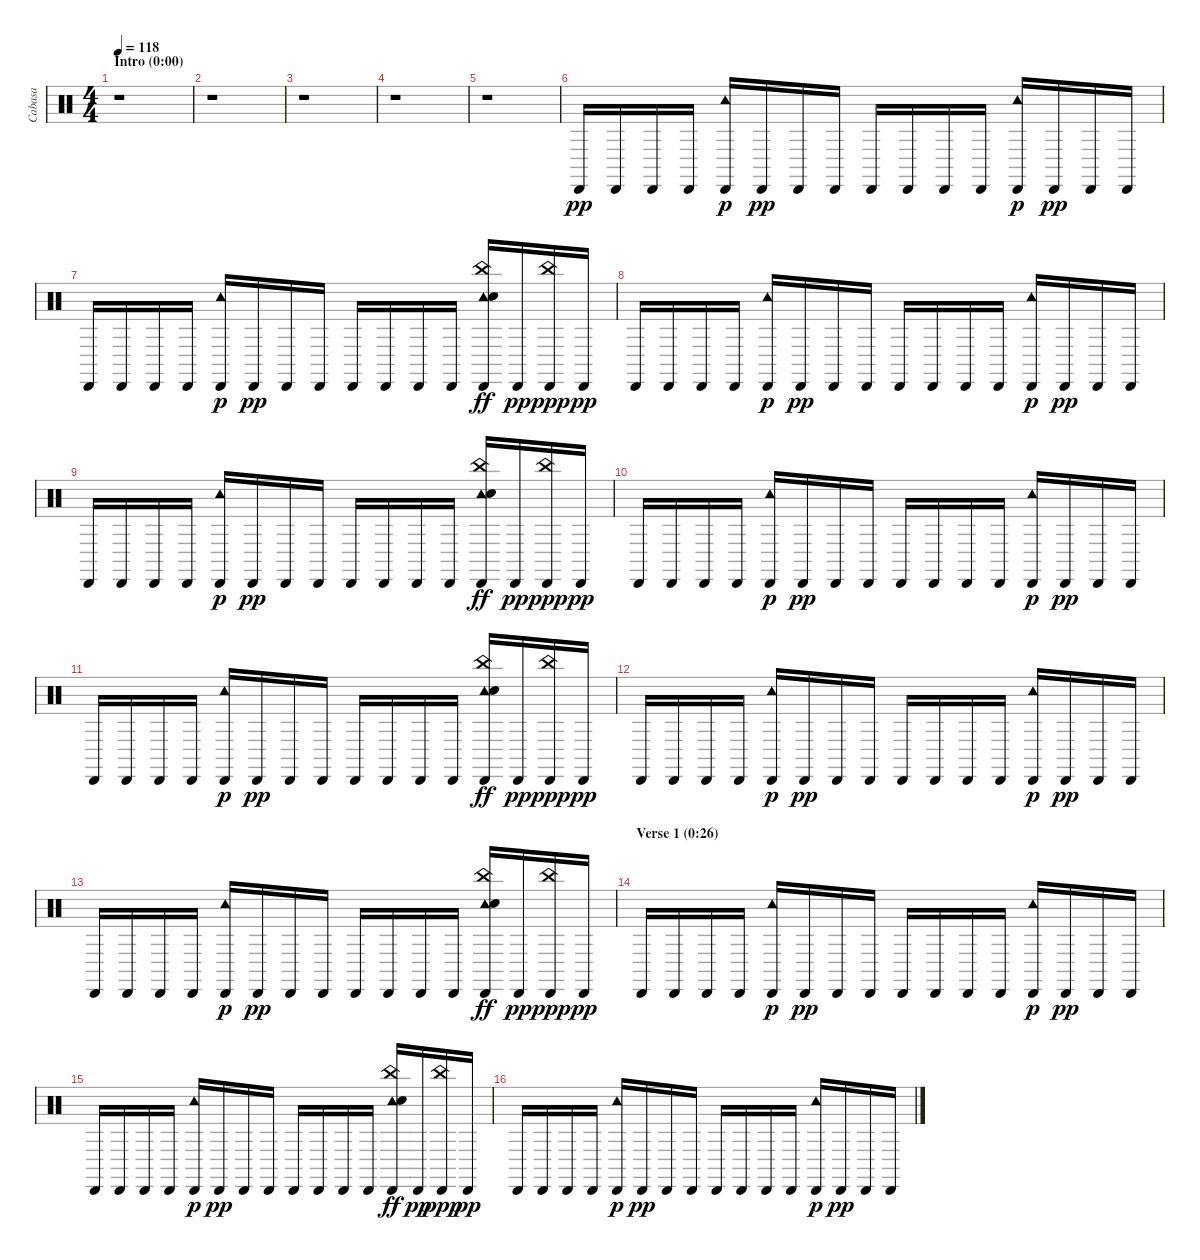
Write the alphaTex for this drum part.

\track ("Cabasa" "Cabasa") {instrument percussion}
\staff {score}
\articulation defaults
\ts (4 4)
\section ("" "Intro (0:00)")
\tempo 118
\clef neutral
\ks c
r.1{dy pp} |
r.1 |
r.1 |
r.1 |
r.1 |
"Cabasa (hit)".16 "Cabasa (hit)".16 "Cabasa (hit)".16 "Cabasa (hit)".16 ("Cabasa (hit)" "Tambourine (hit)").16{dy p} "Cabasa (hit)".16{dy pp} "Cabasa (hit)".16 "Cabasa (hit)".16 "Cabasa (hit)".16 "Cabasa (hit)".16 "Cabasa (hit)".16 "Cabasa (hit)".16 ("Cabasa (hit)" "Tambourine (hit)").16{dy p} "Cabasa (hit)".16{dy pp} "Cabasa (hit)".16 "Cabasa (hit)".16 |
"Cabasa (hit)".16 "Cabasa (hit)".16 "Cabasa (hit)".16 "Cabasa (hit)".16 ("Cabasa (hit)" "Tambourine (hit)").16{dy p} "Cabasa (hit)".16{dy pp} "Cabasa (hit)".16 "Cabasa (hit)".16 "Cabasa (hit)".16 "Cabasa (hit)".16 "Cabasa (hit)".16 "Cabasa (hit)".16 ("Cabasa (hit)" "Tambourine (hit)" "Hand Clap (hit)" "China (hit)").16{dy ff} "Cabasa (hit)".16{dy pp} ("Cabasa (hit)" "China (hit)").16{dy ppp} "Cabasa (hit)".16{dy pp} |
"Cabasa (hit)".16 "Cabasa (hit)".16 "Cabasa (hit)".16 "Cabasa (hit)".16 ("Cabasa (hit)" "Tambourine (hit)").16{dy p} "Cabasa (hit)".16{dy pp} "Cabasa (hit)".16 "Cabasa (hit)".16 "Cabasa (hit)".16 "Cabasa (hit)".16 "Cabasa (hit)".16 "Cabasa (hit)".16 ("Cabasa (hit)" "Tambourine (hit)").16{dy p} "Cabasa (hit)".16{dy pp} "Cabasa (hit)".16 "Cabasa (hit)".16 |
"Cabasa (hit)".16 "Cabasa (hit)".16 "Cabasa (hit)".16 "Cabasa (hit)".16 ("Cabasa (hit)" "Tambourine (hit)").16{dy p} "Cabasa (hit)".16{dy pp} "Cabasa (hit)".16 "Cabasa (hit)".16 "Cabasa (hit)".16 "Cabasa (hit)".16 "Cabasa (hit)".16 "Cabasa (hit)".16 ("Cabasa (hit)" "Tambourine (hit)" "Hand Clap (hit)" "China (hit)").16{dy ff} "Cabasa (hit)".16{dy pp} ("Cabasa (hit)" "China (hit)").16{dy ppp} "Cabasa (hit)".16{dy pp} |
"Cabasa (hit)".16 "Cabasa (hit)".16 "Cabasa (hit)".16 "Cabasa (hit)".16 ("Cabasa (hit)" "Tambourine (hit)").16{dy p} "Cabasa (hit)".16{dy pp} "Cabasa (hit)".16 "Cabasa (hit)".16 "Cabasa (hit)".16 "Cabasa (hit)".16 "Cabasa (hit)".16 "Cabasa (hit)".16 ("Cabasa (hit)" "Tambourine (hit)").16{dy p} "Cabasa (hit)".16{dy pp} "Cabasa (hit)".16 "Cabasa (hit)".16 |
"Cabasa (hit)".16 "Cabasa (hit)".16 "Cabasa (hit)".16 "Cabasa (hit)".16 ("Cabasa (hit)" "Tambourine (hit)").16{dy p} "Cabasa (hit)".16{dy pp} "Cabasa (hit)".16 "Cabasa (hit)".16 "Cabasa (hit)".16 "Cabasa (hit)".16 "Cabasa (hit)".16 "Cabasa (hit)".16 ("Cabasa (hit)" "Tambourine (hit)" "Hand Clap (hit)" "China (hit)").16{dy ff} "Cabasa (hit)".16{dy pp} ("Cabasa (hit)" "China (hit)").16{dy ppp} "Cabasa (hit)".16{dy pp} |
"Cabasa (hit)".16 "Cabasa (hit)".16 "Cabasa (hit)".16 "Cabasa (hit)".16 ("Cabasa (hit)" "Tambourine (hit)").16{dy p} "Cabasa (hit)".16{dy pp} "Cabasa (hit)".16 "Cabasa (hit)".16 "Cabasa (hit)".16 "Cabasa (hit)".16 "Cabasa (hit)".16 "Cabasa (hit)".16 ("Cabasa (hit)" "Tambourine (hit)").16{dy p} "Cabasa (hit)".16{dy pp} "Cabasa (hit)".16 "Cabasa (hit)".16 |
"Cabasa (hit)".16 "Cabasa (hit)".16 "Cabasa (hit)".16 "Cabasa (hit)".16 ("Cabasa (hit)" "Tambourine (hit)").16{dy p} "Cabasa (hit)".16{dy pp} "Cabasa (hit)".16 "Cabasa (hit)".16 "Cabasa (hit)".16 "Cabasa (hit)".16 "Cabasa (hit)".16 "Cabasa (hit)".16 ("Cabasa (hit)" "Tambourine (hit)" "Hand Clap (hit)" "China (hit)").16{dy ff} "Cabasa (hit)".16{dy pp} ("Cabasa (hit)" "China (hit)").16{dy ppp} "Cabasa (hit)".16{dy pp} |
\section ("" "Verse 1 (0:26)")
"Cabasa (hit)".16 "Cabasa (hit)".16 "Cabasa (hit)".16 "Cabasa (hit)".16 ("Cabasa (hit)" "Tambourine (hit)").16{dy p} "Cabasa (hit)".16{dy pp} "Cabasa (hit)".16 "Cabasa (hit)".16 "Cabasa (hit)".16 "Cabasa (hit)".16 "Cabasa (hit)".16 "Cabasa (hit)".16 ("Cabasa (hit)" "Tambourine (hit)").16{dy p} "Cabasa (hit)".16{dy pp} "Cabasa (hit)".16 "Cabasa (hit)".16 |
"Cabasa (hit)".16 "Cabasa (hit)".16 "Cabasa (hit)".16 "Cabasa (hit)".16 ("Cabasa (hit)" "Tambourine (hit)").16{dy p} "Cabasa (hit)".16{dy pp} "Cabasa (hit)".16 "Cabasa (hit)".16 "Cabasa (hit)".16 "Cabasa (hit)".16 "Cabasa (hit)".16 "Cabasa (hit)".16 ("Cabasa (hit)" "Tambourine (hit)" "Hand Clap (hit)" "China (hit)").16{dy ff} "Cabasa (hit)".16{dy pp} ("Cabasa (hit)" "China (hit)").16{dy ppp} "Cabasa (hit)".16{dy pp} |
"Cabasa (hit)".16 "Cabasa (hit)".16 "Cabasa (hit)".16 "Cabasa (hit)".16 ("Cabasa (hit)" "Tambourine (hit)").16{dy p} "Cabasa (hit)".16{dy pp} "Cabasa (hit)".16 "Cabasa (hit)".16 "Cabasa (hit)".16 "Cabasa (hit)".16 "Cabasa (hit)".16 "Cabasa (hit)".16 ("Cabasa (hit)" "Tambourine (hit)").16{dy p} "Cabasa (hit)".16{dy pp} "Cabasa (hit)".16 "Cabasa (hit)".16
